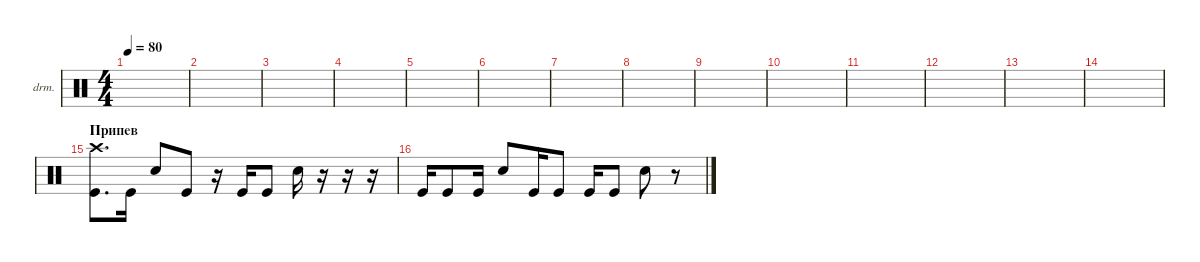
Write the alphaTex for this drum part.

\defaultSystemsLayout 4
\hideDynamics
\bracketExtendMode nobrackets
\firstSystemTrackNameOrientation horizontal
\otherSystemsTrackNameOrientation horizontal
\track ("Drumkit" "drm.") {instrument percussion}
\staff {score}
\articulation defaults
\ts (4 4)
\tempo 80
\clef neutral
\ks c
|
|
|
|
|
|
|
|
|
|
|
|
|
|
\section ("" "Припев")
("Kick (hit)" "Crash high (hit)").8{d} "Kick (hit)".16 "Snare (hit) 2".8 "Kick (hit)".8 r.16 "Kick (hit)".16 "Kick (hit)".8 "Snare (hit) 2".16 r.16 r.16 r.16 |
"Kick (hit)".16 "Kick (hit)".8 "Kick (hit)".16 "Snare (hit) 2".8 "Kick (hit)".16 "Kick (hit)".8 "Kick (hit)".16 "Kick (hit)".8 "Snare (hit) 2".8 r.8
